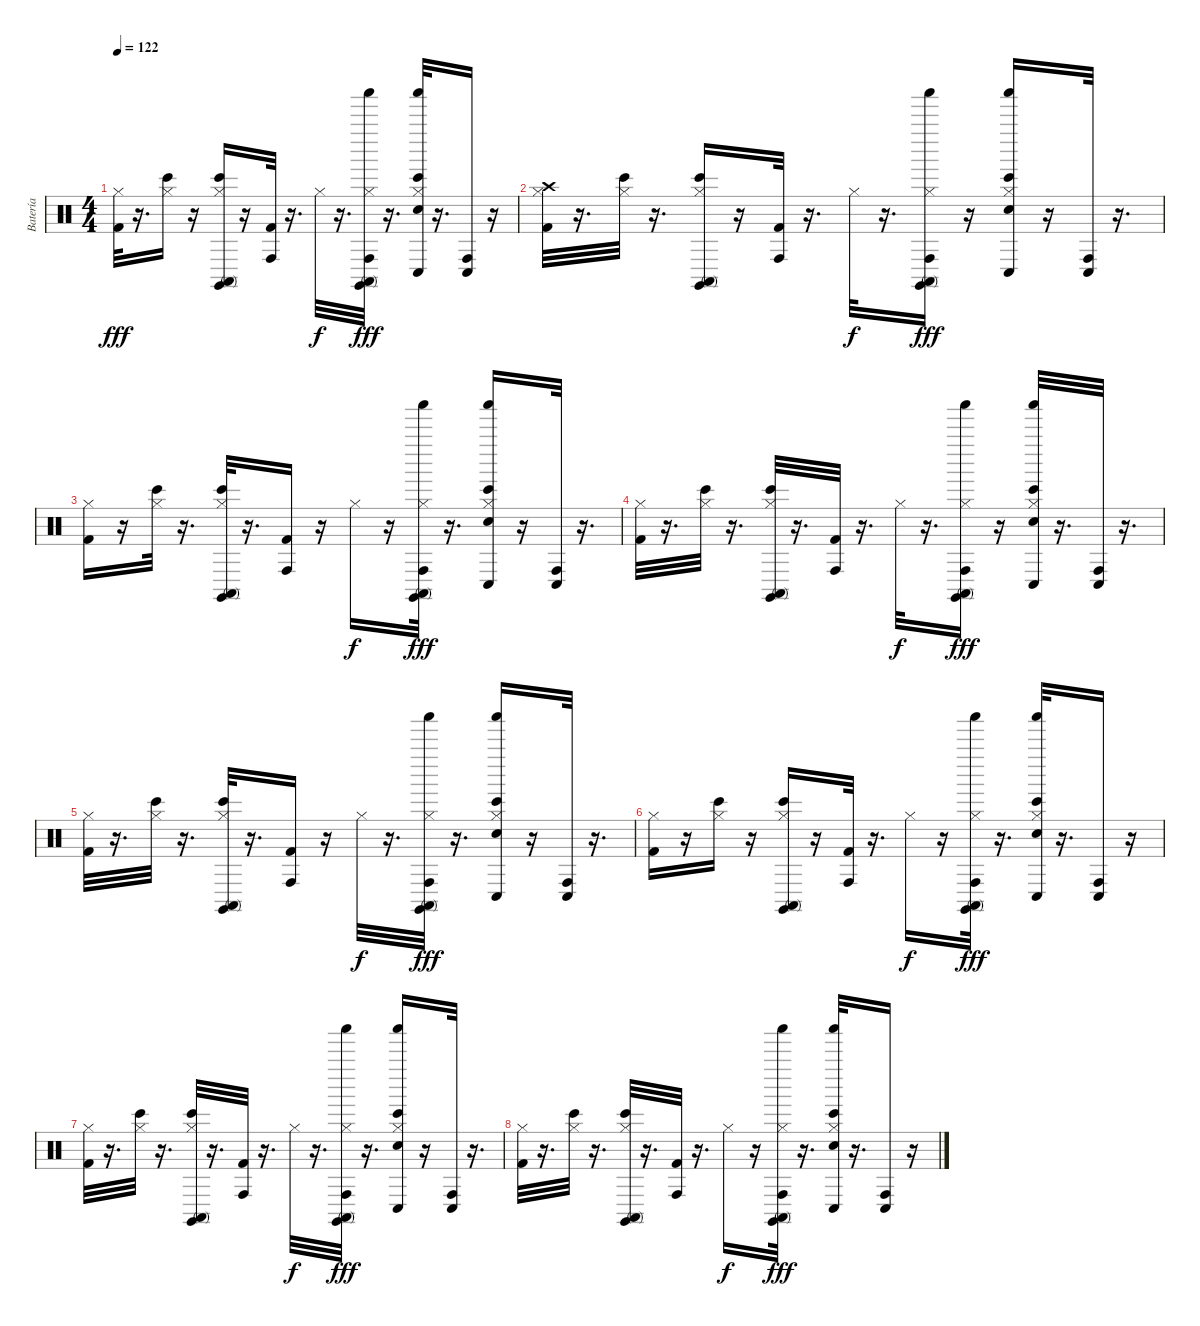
\track ("Batería" "Batería") {instrument percussion}
\staff {score}
\articulation defaults
\ts (4 4)
\tempo 122
\clef neutral
\ks c
("Hi-Hat (closed)" "Kick (hit) 2").32{dy fff} r.16{d} ("Bongo High (hit)" "Hi-Hat (closed)").16 r.16 ("Claves (hit)" "Bongo High (hit)" "Conga high (mute)" "Hi-Hat (closed)").16 r.16 ("Conga high (hit)" "Kick (hit) 2").32 r.16{d} "Hi-Hat (closed)".32{dy f} r.16{d} ("Claves (hit)" "Conga high (hit)" "Conga high (mute)" "Shaker (hit)" "Hi-Hat (closed)").32{dy fff} r.16{d} ("Snare (hit) 2" "Bongo High (hit)" "Conga low (hit)" "Shaker (hit)" "Hi-Hat (closed)").32 r.16{d} ("Conga high (hit)" "Conga low (hit)").16 r.16 |
("Hi-Hat (closed)" "Kick (hit) 2" "Crash high (hit)").32 r.16{d} ("Bongo High (hit)" "Hi-Hat (closed)").32 r.16{d} ("Claves (hit)" "Bongo High (hit)" "Conga high (mute)" "Hi-Hat (closed)").16 r.16 ("Conga high (hit)" "Kick (hit) 2").32 r.16{d} "Hi-Hat (closed)".32{dy f} r.16{d} ("Claves (hit)" "Conga high (hit)" "Conga high (mute)" "Shaker (hit)" "Hi-Hat (closed)").16{dy fff} r.16 ("Snare (hit) 2" "Bongo High (hit)" "Conga low (hit)" "Shaker (hit)" "Hi-Hat (closed)").16 r.16 ("Conga high (hit)" "Conga low (hit)").32 r.16{d} |
("Hi-Hat (closed)" "Kick (hit) 2").16 r.16 ("Bongo High (hit)" "Hi-Hat (closed)").32 r.16{d} ("Claves (hit)" "Bongo High (hit)" "Conga high (mute)" "Hi-Hat (closed)").32 r.16{d} ("Conga high (hit)" "Kick (hit) 2").16 r.16 "Hi-Hat (closed)".16{dy f} r.16 ("Claves (hit)" "Conga high (hit)" "Conga high (mute)" "Shaker (hit)" "Hi-Hat (closed)").32{dy fff} r.16{d} ("Snare (hit) 2" "Bongo High (hit)" "Conga low (hit)" "Shaker (hit)" "Hi-Hat (closed)").16 r.16 ("Conga high (hit)" "Conga low (hit)").32 r.16{d} |
("Hi-Hat (closed)" "Kick (hit) 2").32 r.16{d} ("Bongo High (hit)" "Hi-Hat (closed)").32 r.16{d} ("Claves (hit)" "Bongo High (hit)" "Conga high (mute)" "Hi-Hat (closed)").32 r.16{d} ("Conga high (hit)" "Kick (hit) 2").32 r.16{d} "Hi-Hat (closed)".32{dy f} r.16{d} ("Claves (hit)" "Conga high (hit)" "Conga high (mute)" "Shaker (hit)" "Hi-Hat (closed)").16{dy fff} r.16 ("Snare (hit) 2" "Bongo High (hit)" "Conga low (hit)" "Shaker (hit)" "Hi-Hat (closed)").32 r.16{d} ("Conga high (hit)" "Conga low (hit)").32 r.16{d} |
("Hi-Hat (closed)" "Kick (hit) 2").32 r.16{d} ("Bongo High (hit)" "Hi-Hat (closed)").32 r.16{d} ("Claves (hit)" "Bongo High (hit)" "Conga high (mute)" "Hi-Hat (closed)").32 r.16{d} ("Conga high (hit)" "Kick (hit) 2").16 r.16 "Hi-Hat (closed)".32{dy f} r.16{d} ("Claves (hit)" "Conga high (hit)" "Conga high (mute)" "Shaker (hit)" "Hi-Hat (closed)").32{dy fff} r.16{d} ("Snare (hit) 2" "Bongo High (hit)" "Conga low (hit)" "Shaker (hit)" "Hi-Hat (closed)").16 r.16 ("Conga high (hit)" "Conga low (hit)").32 r.16{d} |
("Hi-Hat (closed)" "Kick (hit) 2").16 r.16 ("Bongo High (hit)" "Hi-Hat (closed)").16 r.16 ("Claves (hit)" "Bongo High (hit)" "Conga high (mute)" "Hi-Hat (closed)").16 r.16 ("Conga high (hit)" "Kick (hit) 2").32 r.16{d} "Hi-Hat (closed)".16{dy f} r.16 ("Claves (hit)" "Conga high (hit)" "Conga high (mute)" "Shaker (hit)" "Hi-Hat (closed)").32{dy fff} r.16{d} ("Snare (hit) 2" "Bongo High (hit)" "Conga low (hit)" "Shaker (hit)" "Hi-Hat (closed)").32 r.16{d} ("Conga high (hit)" "Conga low (hit)").16 r.16 |
("Hi-Hat (closed)" "Kick (hit) 2").32 r.16{d} ("Bongo High (hit)" "Hi-Hat (closed)").32 r.16{d} ("Claves (hit)" "Bongo High (hit)" "Conga high (mute)" "Hi-Hat (closed)").32 r.16{d} ("Conga high (hit)" "Kick (hit) 2").32 r.16{d} "Hi-Hat (closed)".32{dy f} r.16{d} ("Claves (hit)" "Conga high (hit)" "Conga high (mute)" "Shaker (hit)" "Hi-Hat (closed)").32{dy fff} r.16{d} ("Snare (hit) 2" "Bongo High (hit)" "Conga low (hit)" "Shaker (hit)" "Hi-Hat (closed)").16 r.16 ("Conga high (hit)" "Conga low (hit)").32 r.16{d} |
("Hi-Hat (closed)" "Kick (hit) 2").32 r.16{d} ("Bongo High (hit)" "Hi-Hat (closed)").32 r.16{d} ("Claves (hit)" "Bongo High (hit)" "Conga high (mute)" "Hi-Hat (closed)").32 r.16{d} ("Conga high (hit)" "Kick (hit) 2").32 r.16{d} "Hi-Hat (closed)".16{dy f} r.16 ("Claves (hit)" "Conga high (hit)" "Conga high (mute)" "Shaker (hit)" "Hi-Hat (closed)").32{dy fff} r.16{d} ("Snare (hit) 2" "Bongo High (hit)" "Conga low (hit)" "Shaker (hit)" "Hi-Hat (closed)").32 r.16{d} ("Conga high (hit)" "Conga low (hit)").16 r.16
